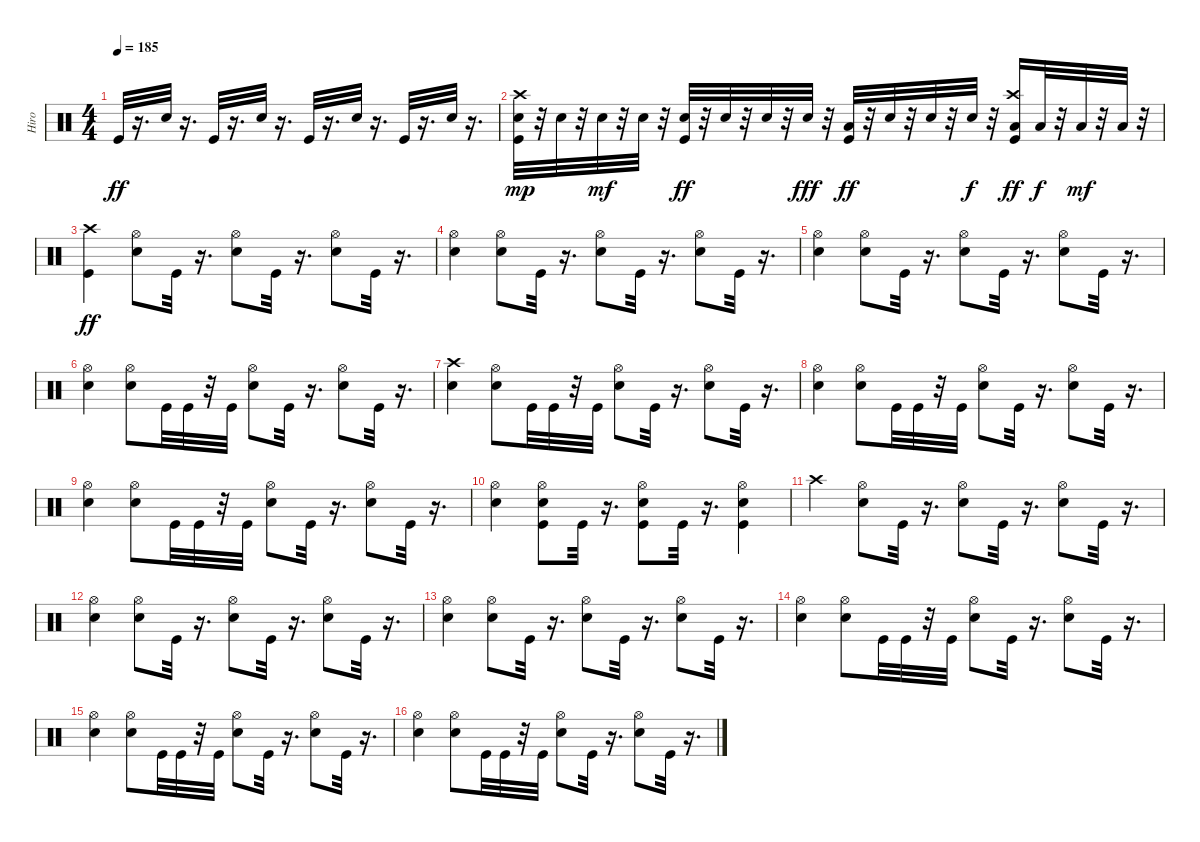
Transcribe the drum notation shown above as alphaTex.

\track ("Hiro" "Hiro") {instrument percussion}
\staff {score}
\articulation defaults
\ts (4 4)
\tempo 185
\clef neutral
\ks c "Kick (hit)".32{dy ff}
r.16{d} "Electric Snare (hit)".32 r.16{d} "Kick (hit)".32 r.16{d} "Electric Snare (hit)".32 r.16{d} "Kick (hit)".32 r.16{d} "Electric Snare (hit)".32 r.16{d} "Kick (hit)".32 r.16{d} "Electric Snare (hit)".32 r.16{d} |
("Crash high (hit)" "Kick (hit)" "Electric Snare (hit)").32{dy mp} r.32 "Electric Snare (hit)".32 r.32 "Electric Snare (hit)".32{dy mf} r.32 "Electric Snare (hit)".32 r.32 ("Electric Snare (hit)" "Kick (hit)").32{dy ff} r.32 "Electric Snare (hit)".32 r.32 "Electric Snare (hit)".32 r.32 "Electric Snare (hit)".32{dy fff} r.32 ("Low Tom (hit)" "Kick (hit)").32{dy ff} r.32 "Electric Snare (hit)".32 r.32 "Electric Snare (hit)".32 r.32 "Electric Snare (hit)".32{dy f} r.32 ("Crash high (hit)" "Kick (hit)" "Low Tom (hit)").16{dy ff} "Low Tom (hit)".32{dy f} r.32 "Low Tom (hit)".32{dy mf} r.32 "Low Tom (hit)".32 r.32 |
("Crash high (hit)" "Kick (hit)").4{dy ff} ("Hi-Hat (open)" "Electric Snare (hit)").8 "Kick (hit)".32 r.16{d} ("Hi-Hat (open)" "Electric Snare (hit)").8 "Kick (hit)".32 r.16{d} ("Hi-Hat (open)" "Electric Snare (hit)").8 "Kick (hit)".32 r.16{d} |
("Hi-Hat (open)" "Electric Snare (hit)").4 ("Hi-Hat (open)" "Electric Snare (hit)").8 "Kick (hit)".32 r.16{d} ("Hi-Hat (open)" "Electric Snare (hit)").8 "Kick (hit)".32 r.16{d} ("Hi-Hat (open)" "Electric Snare (hit)").8 "Kick (hit)".32 r.16{d} |
("Hi-Hat (open)" "Electric Snare (hit)").4 ("Hi-Hat (open)" "Electric Snare (hit)").8 "Kick (hit)".32 r.16{d} ("Hi-Hat (open)" "Electric Snare (hit)").8 "Kick (hit)".32 r.16{d} ("Hi-Hat (open)" "Electric Snare (hit)").8 "Kick (hit)".32 r.16{d} |
("Hi-Hat (open)" "Electric Snare (hit)").4 ("Hi-Hat (open)" "Electric Snare (hit)").8 "Kick (hit)".32 "Kick (hit)".32 r.32 "Kick (hit)".32 ("Hi-Hat (open)" "Electric Snare (hit)").8 "Kick (hit)".32 r.16{d} ("Hi-Hat (open)" "Electric Snare (hit)").8 "Kick (hit)".32 r.16{d} |
("Crash high (hit)" "Electric Snare (hit)").4 ("Hi-Hat (open)" "Electric Snare (hit)").8 "Kick (hit)".32 "Kick (hit)".32 r.32 "Kick (hit)".32 ("Hi-Hat (open)" "Electric Snare (hit)").8 "Kick (hit)".32 r.16{d} ("Hi-Hat (open)" "Electric Snare (hit)").8 "Kick (hit)".32 r.16{d} |
("Hi-Hat (open)" "Electric Snare (hit)").4 ("Hi-Hat (open)" "Electric Snare (hit)").8 "Kick (hit)".32 "Kick (hit)".32 r.32 "Kick (hit)".32 ("Hi-Hat (open)" "Electric Snare (hit)").8 "Kick (hit)".32 r.16{d} ("Hi-Hat (open)" "Electric Snare (hit)").8 "Kick (hit)".32 r.16{d} |
("Hi-Hat (open)" "Electric Snare (hit)").4 ("Hi-Hat (open)" "Electric Snare (hit)").8 "Kick (hit)".32 "Kick (hit)".32 r.32 "Kick (hit)".32 ("Hi-Hat (open)" "Electric Snare (hit)").8 "Kick (hit)".32 r.16{d} ("Hi-Hat (open)" "Electric Snare (hit)").8 "Kick (hit)".32 r.16{d} |
("Hi-Hat (open)" "Electric Snare (hit)").4 ("Hi-Hat (open)" "Electric Snare (hit)" "Kick (hit)").8 "Kick (hit)".32 r.16{d} ("Hi-Hat (open)" "Electric Snare (hit)" "Kick (hit)").8 "Kick (hit)".32 r.16{d} ("Hi-Hat (open)" "Electric Snare (hit)" "Kick (hit)").4 |
"Crash high (hit)".4 ("Hi-Hat (open)" "Electric Snare (hit)").8 "Kick (hit)".32 r.16{d} ("Hi-Hat (open)" "Electric Snare (hit)").8 "Kick (hit)".32 r.16{d} ("Hi-Hat (open)" "Electric Snare (hit)").8 "Kick (hit)".32 r.16{d} |
("Hi-Hat (open)" "Electric Snare (hit)").4 ("Hi-Hat (open)" "Electric Snare (hit)").8 "Kick (hit)".32 r.16{d} ("Hi-Hat (open)" "Electric Snare (hit)").8 "Kick (hit)".32 r.16{d} ("Hi-Hat (open)" "Electric Snare (hit)").8 "Kick (hit)".32 r.16{d} |
("Hi-Hat (open)" "Electric Snare (hit)").4 ("Hi-Hat (open)" "Electric Snare (hit)").8 "Kick (hit)".32 r.16{d} ("Hi-Hat (open)" "Electric Snare (hit)").8 "Kick (hit)".32 r.16{d} ("Hi-Hat (open)" "Electric Snare (hit)").8 "Kick (hit)".32 r.16{d} |
("Hi-Hat (open)" "Electric Snare (hit)").4 ("Hi-Hat (open)" "Electric Snare (hit)").8 "Kick (hit)".32 "Kick (hit)".32 r.32 "Kick (hit)".32 ("Hi-Hat (open)" "Electric Snare (hit)").8 "Kick (hit)".32 r.16{d} ("Hi-Hat (open)" "Electric Snare (hit)").8 "Kick (hit)".32 r.16{d} |
("Hi-Hat (open)" "Electric Snare (hit)").4 ("Hi-Hat (open)" "Electric Snare (hit)").8 "Kick (hit)".32 "Kick (hit)".32 r.32 "Kick (hit)".32 ("Hi-Hat (open)" "Electric Snare (hit)").8 "Kick (hit)".32 r.16{d} ("Hi-Hat (open)" "Electric Snare (hit)").8 "Kick (hit)".32 r.16{d} |
("Hi-Hat (open)" "Electric Snare (hit)").4 ("Hi-Hat (open)" "Electric Snare (hit)").8 "Kick (hit)".32 "Kick (hit)".32 r.32 "Kick (hit)".32 ("Hi-Hat (open)" "Electric Snare (hit)").8 "Kick (hit)".32 r.16{d} ("Hi-Hat (open)" "Electric Snare (hit)").8 "Kick (hit)".32 r.16{d}
